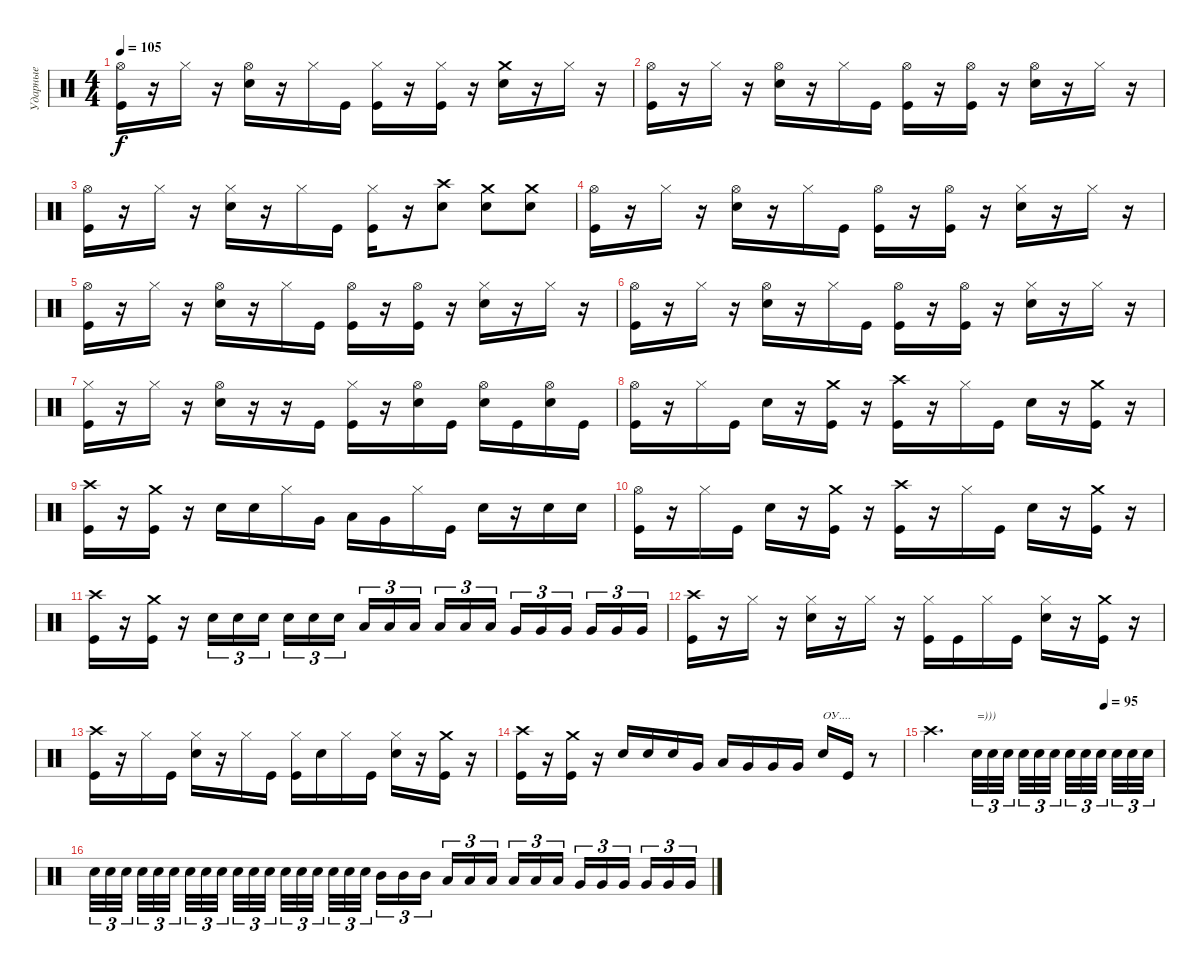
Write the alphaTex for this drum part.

\track ("Ударные" "Ударные") {instrument percussion}
\staff {score}
\articulation defaults
\ts (4 4)
\tempo 105
\clef neutral
\ks c
("Hi-Hat (open)" "Kick (hit)").16{dy f} r.16 "Hi-Hat (closed)".16 r.16 ("Hi-Hat (open)" "Snare (hit) 2").16 r.16 "Hi-Hat (closed)".16 "Kick (hit)".16 ("Hi-Hat (closed)" "Kick (hit)").16 r.16 ("Hi-Hat (closed)" "Kick (hit)").16 r.16 ("Crash medium (hit)" "Snare (hit) 2").16 r.16 "Hi-Hat (closed)".16 r.16 |
("Hi-Hat (open)" "Kick (hit)").16 r.16 "Hi-Hat (closed)".16 r.16 ("Hi-Hat (open)" "Snare (hit) 2").16 r.16 "Hi-Hat (closed)".16 "Kick (hit)".16 ("Hi-Hat (open)" "Kick (hit)").16 r.16 ("Hi-Hat (open)" "Kick (hit)").16 r.16 ("Hi-Hat (open)" "Snare (hit) 2").16 r.16 "Hi-Hat (closed)".16 r.16 |
("Hi-Hat (open)" "Kick (hit)").16 r.16 "Hi-Hat (closed)".16 r.16 ("Hi-Hat (closed)" "Snare (hit) 2").16 r.16 "Hi-Hat (closed)".16 "Kick (hit)".16 ("Hi-Hat (closed)" "Kick (hit)").16 r.16 ("Crash high (hit)" "Snare (hit) 2").8 ("Crash medium (hit)" "Snare (hit) 2").8 ("Crash medium (hit)" "Snare (hit) 2").8 |
("Hi-Hat (open)" "Kick (hit)").16 r.16 "Hi-Hat (closed)".16 r.16 ("Hi-Hat (open)" "Snare (hit) 2").16 r.16 "Hi-Hat (closed)".16 "Kick (hit)".16 ("Hi-Hat (open)" "Kick (hit)").16 r.16 ("Hi-Hat (open)" "Kick (hit)").16 r.16 ("Hi-Hat (closed)" "Snare (hit) 2").16 r.16 "Hi-Hat (closed)".16 r.16 |
("Hi-Hat (open)" "Kick (hit)").16 r.16 "Hi-Hat (closed)".16 r.16 ("Hi-Hat (open)" "Snare (hit) 2").16 r.16 "Hi-Hat (closed)".16 "Kick (hit)".16 ("Hi-Hat (open)" "Kick (hit)").16 r.16 ("Hi-Hat (open)" "Kick (hit)").16 r.16 ("Hi-Hat (closed)" "Snare (hit) 2").16 r.16 "Hi-Hat (closed)".16 r.16 |
("Hi-Hat (open)" "Kick (hit)").16 r.16 "Hi-Hat (closed)".16 r.16 ("Hi-Hat (open)" "Snare (hit) 2").16 r.16 "Hi-Hat (closed)".16 "Kick (hit)".16 ("Hi-Hat (open)" "Kick (hit)").16 r.16 ("Hi-Hat (open)" "Kick (hit)").16 r.16 ("Hi-Hat (closed)" "Snare (hit) 2").16 r.16 "Hi-Hat (closed)".16 r.16 |
("Hi-Hat (closed)" "Kick (hit)").16 r.16 "Hi-Hat (closed)".16 r.16 ("Hi-Hat (open)" "Snare (hit) 2").16 r.16 r.16 "Kick (hit)".16 ("Hi-Hat (closed)" "Kick (hit)").16 r.16 ("Hi-Hat (open)" "Snare (hit) 2").16 "Kick (hit)".16 ("Hi-Hat (open)" "Snare (hit) 2").16 "Kick (hit)".16 ("Hi-Hat (open)" "Snare (hit) 2").16 "Kick (hit)".16 |
("Hi-Hat (open)" "Kick (hit)").16 r.16 "Hi-Hat (closed)".16 "Kick (hit)".16 "Snare (hit) 2".16 r.16 ("Crash medium (hit)" "Kick (hit)").16 r.16 ("Crash high (hit)" "Kick (hit)").16 r.16 "Hi-Hat (closed)".16 "Kick (hit)".16 "Snare (hit) 2".16 r.16 ("Crash medium (hit)" "Kick (hit)").16 r.16 |
("Crash high (hit)" "Kick (hit)").16 r.16 ("Crash medium (hit)" "Kick (hit)").16 r.16 "Snare (hit) 2".16 "Snare (hit) 2".16 "Hi-Hat (closed)".16 "Very Low Tom (hit)".16 "Low Tom (hit)".16 "Very Low Tom (hit)".16 "Hi-Hat (closed)".16 "Kick (hit)".16 "Snare (hit) 2".16 r.16 "Snare (hit) 2".16 "Snare (hit) 2".16 |
("Hi-Hat (open)" "Kick (hit)").16 r.16 "Hi-Hat (closed)".16 "Kick (hit)".16 "Snare (hit) 2".16 r.16 ("Crash medium (hit)" "Kick (hit)").16 r.16 ("Crash high (hit)" "Kick (hit)").16 r.16 "Hi-Hat (closed)".16 "Kick (hit)".16 "Snare (hit) 2".16 r.16 ("Crash medium (hit)" "Kick (hit)").16 r.16 |
("Crash high (hit)" "Kick (hit)").16 r.16 ("Crash medium (hit)" "Kick (hit)").16 r.16 "Snare (hit) 2".16{tu (3 2)} "Snare (hit) 2".16{tu (3 2)} "Snare (hit) 2".16{tu (3 2) beam splitsecondary} "Snare (hit) 2".16{tu (3 2)} "Snare (hit) 2".16{tu (3 2)} "Snare (hit) 2".16{tu (3 2)} "Low Tom (hit)".16{tu (3 2)} "Low Tom (hit)".16{tu (3 2)} "Low Tom (hit)".16{tu (3 2) beam splitsecondary} "Low Tom (hit)".16{tu (3 2)} "Low Tom (hit)".16{tu (3 2)} "Low Tom (hit)".16{tu (3 2)} "Very Low Tom (hit)".16{tu (3 2)} "Very Low Tom (hit)".16{tu (3 2)} "Very Low Tom (hit)".16{tu (3 2) beam splitsecondary} "Very Low Tom (hit)".16{tu (3 2)} "Very Low Tom (hit)".16{tu (3 2)} "Very Low Tom (hit)".16{tu (3 2)} |
("Crash high (hit)" "Kick (hit)").16 r.16 "Hi-Hat (closed)".16 r.16 ("Hi-Hat (closed)" "Snare (hit) 2").16 r.16 "Hi-Hat (closed)".16 r.16 ("Hi-Hat (closed)" "Kick (hit)").16 "Kick (hit)".16 "Hi-Hat (closed)".16 "Kick (hit)".16 ("Hi-Hat (closed)" "Snare (hit) 2").16 r.16 ("Crash medium (hit)" "Kick (hit)").16 r.16 |
("Crash high (hit)" "Kick (hit)").16 r.16 "Hi-Hat (closed)".16 "Kick (hit)".16 ("Hi-Hat (closed)" "Snare (hit) 2").16 r.16 "Hi-Hat (closed)".16 "Kick (hit)".16 ("Hi-Hat (closed)" "Kick (hit)").16 "Snare (hit) 2".16 "Hi-Hat (closed)".16 "Kick (hit)".16 ("Hi-Hat (closed)" "Snare (hit) 2").16 r.16 ("Crash medium (hit)" "Kick (hit)").16 r.16 |
("Crash high (hit)" "Kick (hit)").16 r.16 ("Crash medium (hit)" "Kick (hit)").16 r.16 "Snare (hit) 2".16 "Snare (hit) 2".16 "Snare (hit) 2".16 "Very Low Tom (hit)".16 "Low Tom (hit)".16 "Very Low Tom (hit)".16 "Very Low Tom (hit)".16 "Very Low Tom (hit)".16 "Snare (hit) 2".16{txt "ОУ...."} "Kick (hit)".16 r.8 |
\tempo (95 0.75)
"Crash high (hit)".2{d} "Snare (hit) 2".32{tu (3 2) txt "=)))"} "Snare (hit) 2".32{tu (3 2)} "Snare (hit) 2".32{tu (3 2) beam splitsecondary} "Snare (hit) 2".32{tu (3 2)} "Snare (hit) 2".32{tu (3 2)} "Snare (hit) 2".32{tu (3 2) beam splitsecondary} "Snare (hit) 2".32{tu (3 2)} "Snare (hit) 2".32{tu (3 2)} "Snare (hit) 2".32{tu (3 2) beam splitsecondary} "Snare (hit) 2".32{tu (3 2)} "Snare (hit) 2".32{tu (3 2)} "Snare (hit) 2".32{tu (3 2)} |
"Snare (hit) 2".32{tu (3 2)} "Snare (hit) 2".32{tu (3 2)} "Snare (hit) 2".32{tu (3 2) beam splitsecondary} "Snare (hit) 2".32{tu (3 2)} "Snare (hit) 2".32{tu (3 2)} "Snare (hit) 2".32{tu (3 2) beam splitsecondary} "Snare (hit) 2".32{tu (3 2)} "Snare (hit) 2".32{tu (3 2)} "Snare (hit) 2".32{tu (3 2) beam splitsecondary} "Snare (hit) 2".32{tu (3 2)} "Snare (hit) 2".32{tu (3 2)} "Snare (hit) 2".32{tu (3 2)} "Snare (hit) 2".32{tu (3 2)} "Snare (hit) 2".32{tu (3 2)} "Snare (hit) 2".32{tu (3 2) beam splitsecondary} "Snare (hit) 2".32{tu (3 2)} "Snare (hit) 2".32{tu (3 2)} "Snare (hit) 2".32{tu (3 2) beam splitsecondary} "Mid Tom (hit)".16{tu (3 2)} "Mid Tom (hit)".16{tu (3 2)} "Mid Tom (hit)".16{tu (3 2)} "Low Tom (hit)".16{tu (3 2)} "Low Tom (hit)".16{tu (3 2)} "Low Tom (hit)".16{tu (3 2) beam splitsecondary} "Low Tom (hit)".16{tu (3 2)} "Low Tom (hit)".16{tu (3 2)} "Low Tom (hit)".16{tu (3 2)} "Very Low Tom (hit)".16{tu (3 2)} "Very Low Tom (hit)".16{tu (3 2)} "Very Low Tom (hit)".16{tu (3 2) beam splitsecondary} "Very Low Tom (hit)".16{tu (3 2)} "Very Low Tom (hit)".16{tu (3 2)} "Very Low Tom (hit)".16{tu (3 2)}
